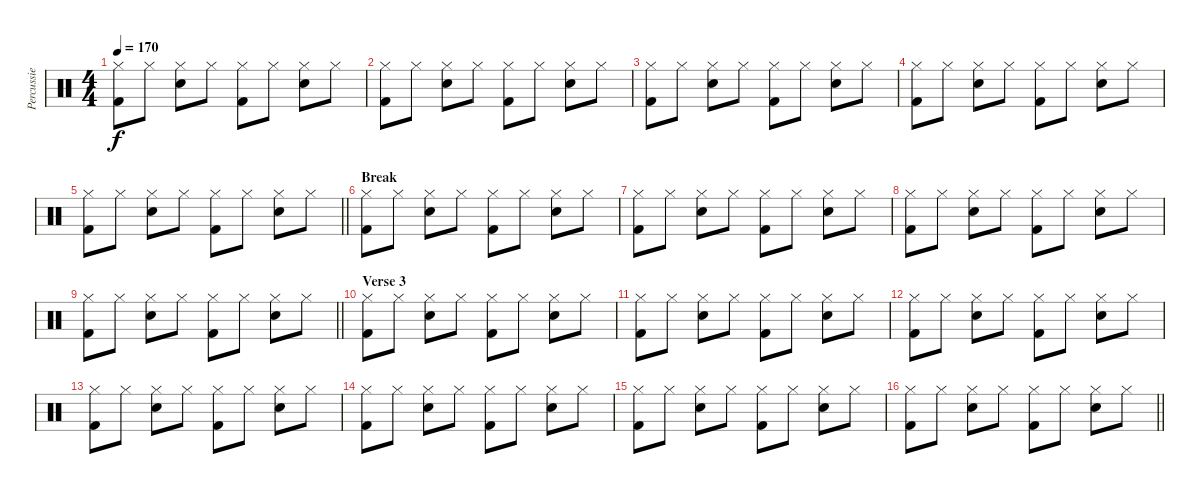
\track ("Percussie" "Percussie") {instrument percussion}
\staff {score}
\articulation defaults
\ts (4 4)
\tempo 170
\clef neutral
\ks c
("Hi-Hat (closed)" "Kick (hit) 2").8{dy f} "Hi-Hat (closed)".8 ("Hi-Hat (closed)" "Electric Snare (hit)").8 "Hi-Hat (closed)".8 ("Hi-Hat (closed)" "Kick (hit) 2").8 "Hi-Hat (closed)".8 ("Hi-Hat (closed)" "Electric Snare (hit)").8 "Hi-Hat (closed)".8 |
("Hi-Hat (closed)" "Kick (hit) 2").8 "Hi-Hat (closed)".8 ("Hi-Hat (closed)" "Electric Snare (hit)").8 "Hi-Hat (closed)".8 ("Hi-Hat (closed)" "Kick (hit) 2").8 "Hi-Hat (closed)".8 ("Hi-Hat (closed)" "Electric Snare (hit)").8 "Hi-Hat (closed)".8 |
("Hi-Hat (closed)" "Kick (hit) 2").8 "Hi-Hat (closed)".8 ("Hi-Hat (closed)" "Electric Snare (hit)").8 "Hi-Hat (closed)".8 ("Hi-Hat (closed)" "Kick (hit) 2").8 "Hi-Hat (closed)".8 ("Hi-Hat (closed)" "Electric Snare (hit)").8 "Hi-Hat (closed)".8 |
("Hi-Hat (closed)" "Kick (hit) 2").8 "Hi-Hat (closed)".8 ("Hi-Hat (closed)" "Electric Snare (hit)").8 "Hi-Hat (closed)".8 ("Hi-Hat (closed)" "Kick (hit) 2").8 "Hi-Hat (closed)".8 ("Hi-Hat (closed)" "Electric Snare (hit)").8 "Hi-Hat (closed)".8 |
\barLineRight lightlight
("Hi-Hat (closed)" "Kick (hit) 2").8 "Hi-Hat (closed)".8 ("Hi-Hat (closed)" "Electric Snare (hit)").8 "Hi-Hat (closed)".8 ("Hi-Hat (closed)" "Kick (hit) 2").8 "Hi-Hat (closed)".8 ("Hi-Hat (closed)" "Electric Snare (hit)").8 "Hi-Hat (closed)".8 |
\section ("" "Break")
("Hi-Hat (closed)" "Kick (hit) 2").8 "Hi-Hat (closed)".8 ("Hi-Hat (closed)" "Electric Snare (hit)").8 "Hi-Hat (closed)".8 ("Hi-Hat (closed)" "Kick (hit) 2").8 "Hi-Hat (closed)".8 ("Hi-Hat (closed)" "Electric Snare (hit)").8 "Hi-Hat (closed)".8 |
("Hi-Hat (closed)" "Kick (hit) 2").8 "Hi-Hat (closed)".8 ("Hi-Hat (closed)" "Electric Snare (hit)").8 "Hi-Hat (closed)".8 ("Hi-Hat (closed)" "Kick (hit) 2").8 "Hi-Hat (closed)".8 ("Hi-Hat (closed)" "Electric Snare (hit)").8 "Hi-Hat (closed)".8 |
("Hi-Hat (closed)" "Kick (hit) 2").8 "Hi-Hat (closed)".8 ("Hi-Hat (closed)" "Electric Snare (hit)").8 "Hi-Hat (closed)".8 ("Hi-Hat (closed)" "Kick (hit) 2").8 "Hi-Hat (closed)".8 ("Hi-Hat (closed)" "Electric Snare (hit)").8 "Hi-Hat (closed)".8 |
\barLineRight lightlight
("Hi-Hat (closed)" "Kick (hit) 2").8 "Hi-Hat (closed)".8 ("Hi-Hat (closed)" "Electric Snare (hit)").8 "Hi-Hat (closed)".8 ("Hi-Hat (closed)" "Kick (hit) 2").8 "Hi-Hat (closed)".8 ("Hi-Hat (closed)" "Electric Snare (hit)").8 "Hi-Hat (closed)".8 |
\section ("" "Verse 3")
("Hi-Hat (closed)" "Kick (hit) 2").8 "Hi-Hat (closed)".8 ("Hi-Hat (closed)" "Electric Snare (hit)").8 "Hi-Hat (closed)".8 ("Hi-Hat (closed)" "Kick (hit) 2").8 "Hi-Hat (closed)".8 ("Hi-Hat (closed)" "Electric Snare (hit)").8 "Hi-Hat (closed)".8 |
("Hi-Hat (closed)" "Kick (hit) 2").8 "Hi-Hat (closed)".8 ("Hi-Hat (closed)" "Electric Snare (hit)").8 "Hi-Hat (closed)".8 ("Hi-Hat (closed)" "Kick (hit) 2").8 "Hi-Hat (closed)".8 ("Hi-Hat (closed)" "Electric Snare (hit)").8 "Hi-Hat (closed)".8 |
("Hi-Hat (closed)" "Kick (hit) 2").8 "Hi-Hat (closed)".8 ("Hi-Hat (closed)" "Electric Snare (hit)").8 "Hi-Hat (closed)".8 ("Hi-Hat (closed)" "Kick (hit) 2").8 "Hi-Hat (closed)".8 ("Hi-Hat (closed)" "Electric Snare (hit)").8 "Hi-Hat (closed)".8 |
("Hi-Hat (closed)" "Kick (hit) 2").8 "Hi-Hat (closed)".8 ("Hi-Hat (closed)" "Electric Snare (hit)").8 "Hi-Hat (closed)".8 ("Hi-Hat (closed)" "Kick (hit) 2").8 "Hi-Hat (closed)".8 ("Hi-Hat (closed)" "Electric Snare (hit)").8 "Hi-Hat (closed)".8 |
("Hi-Hat (closed)" "Kick (hit) 2").8 "Hi-Hat (closed)".8 ("Hi-Hat (closed)" "Electric Snare (hit)").8 "Hi-Hat (closed)".8 ("Hi-Hat (closed)" "Kick (hit) 2").8 "Hi-Hat (closed)".8 ("Hi-Hat (closed)" "Electric Snare (hit)").8 "Hi-Hat (closed)".8 |
("Hi-Hat (closed)" "Kick (hit) 2").8 "Hi-Hat (closed)".8 ("Hi-Hat (closed)" "Electric Snare (hit)").8 "Hi-Hat (closed)".8 ("Hi-Hat (closed)" "Kick (hit) 2").8 "Hi-Hat (closed)".8 ("Hi-Hat (closed)" "Electric Snare (hit)").8 "Hi-Hat (closed)".8 |
\barLineRight lightlight
("Hi-Hat (closed)" "Kick (hit) 2").8 "Hi-Hat (closed)".8 ("Hi-Hat (closed)" "Electric Snare (hit)").8 "Hi-Hat (closed)".8 ("Hi-Hat (closed)" "Kick (hit) 2").8 "Hi-Hat (closed)".8 ("Hi-Hat (closed)" "Electric Snare (hit)").8 "Hi-Hat (closed)".8
